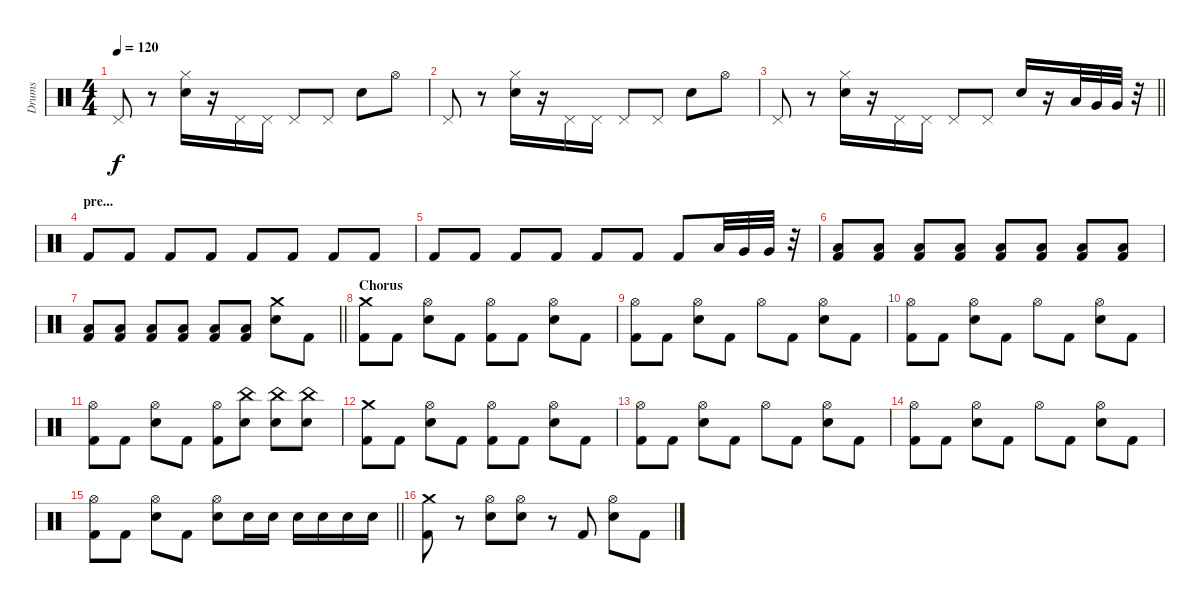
\track ("Drums" "Drums") {instrument percussion}
\staff {score}
\articulation defaults
\ts (4 4)
\tempo 120
\clef neutral
\ks c "Pedal Hi-Hat (hit)".8{dy f}
r.8 ("Hi-Hat (closed)" "Electric Snare (hit)").16 r.16 "Pedal Hi-Hat (hit)".16 "Pedal Hi-Hat (hit)".16 "Pedal Hi-Hat (hit)".8 "Pedal Hi-Hat (hit)".8 "Electric Snare (hit)".8 "Hi-Hat (open)".8 |
"Pedal Hi-Hat (hit)".8 r.8 ("Hi-Hat (closed)" "Electric Snare (hit)").16 r.16 "Pedal Hi-Hat (hit)".16 "Pedal Hi-Hat (hit)".16 "Pedal Hi-Hat (hit)".8 "Pedal Hi-Hat (hit)".8 "Electric Snare (hit)".8 "Hi-Hat (open)".8 |
\barLineRight lightlight "Pedal Hi-Hat (hit)".8
r.8 ("Hi-Hat (closed)" "Electric Snare (hit)").16 r.16 "Pedal Hi-Hat (hit)".16 "Pedal Hi-Hat (hit)".16 "Pedal Hi-Hat (hit)".8 "Pedal Hi-Hat (hit)".8 "Electric Snare (hit)".16 r.16 "Low Tom (hit)".32{balance 0} "Very Low Tom (hit)".32 "Very Low Tom (hit)".32 r.32 |
\section ("" "pre...")
"Kick (hit) 2".8{balance 8} "Kick (hit) 2".8 "Kick (hit) 2".8 "Kick (hit) 2".8 "Kick (hit) 2".8 "Kick (hit) 2".8 "Kick (hit) 2".8 "Kick (hit) 2".8 |
"Kick (hit) 2".8 "Kick (hit) 2".8 "Kick (hit) 2".8 "Kick (hit) 2".8 "Kick (hit) 2".8 "Kick (hit) 2".8 "Kick (hit) 2".8 "Low Tom (hit)".32 "Very Low Tom (hit)".32 "Very Low Tom (hit)".32 r.32 |
("Low Floor Tom (hit)" "Kick (hit) 2").8 ("Low Floor Tom (hit)" "Kick (hit) 2").8 ("Low Floor Tom (hit)" "Kick (hit) 2").8 ("Low Floor Tom (hit)" "Kick (hit) 2").8 ("Low Floor Tom (hit)" "Kick (hit) 2").8 ("Low Floor Tom (hit)" "Kick (hit) 2").8 ("Low Floor Tom (hit)" "Kick (hit) 2").8 ("Low Floor Tom (hit)" "Kick (hit) 2").8 |
\barLineRight lightlight
("Low Floor Tom (hit)" "Kick (hit) 2").8 ("Low Floor Tom (hit)" "Kick (hit) 2").8 ("Low Floor Tom (hit)" "Kick (hit) 2").8 ("Low Floor Tom (hit)" "Kick (hit) 2").8 ("Low Floor Tom (hit)" "Kick (hit) 2").8 ("Low Floor Tom (hit)" "Kick (hit) 2").8 ("Crash medium (hit)" "Electric Snare (hit)").8 "Kick (hit) 2".8 |
\section ("" "Chorus")
("Crash medium (hit)" "Kick (hit) 2").8 "Kick (hit) 2".8 ("Hi-Hat (open)" "Electric Snare (hit)").8 "Kick (hit) 2".8 ("Hi-Hat (open)" "Kick (hit) 2").8 "Kick (hit) 2".8 ("Hi-Hat (open)" "Electric Snare (hit)").8 "Kick (hit) 2".8 |
("Hi-Hat (open)" "Kick (hit) 2").8 "Kick (hit) 2".8 ("Hi-Hat (open)" "Electric Snare (hit)").8 "Kick (hit) 2".8 "Hi-Hat (open)".8 "Kick (hit) 2".8 ("Hi-Hat (open)" "Electric Snare (hit)").8 "Kick (hit) 2".8 |
("Hi-Hat (open)" "Kick (hit) 2").8 "Kick (hit) 2".8 ("Hi-Hat (open)" "Electric Snare (hit)").8 "Kick (hit) 2".8 "Hi-Hat (open)".8 "Kick (hit) 2".8 ("Hi-Hat (open)" "Electric Snare (hit)").8 "Kick (hit) 2".8 |
("Hi-Hat (open)" "Kick (hit) 2").8 "Kick (hit) 2".8 ("Hi-Hat (open)" "Electric Snare (hit)").8 "Kick (hit) 2".8 ("Hi-Hat (open)" "Kick (hit) 2").8 ("China (hit)" "Electric Snare (hit)").8 ("China (hit)" "Electric Snare (hit)").8 ("China (hit)" "Electric Snare (hit)").8 |
("Crash medium (hit)" "Kick (hit) 2").8 "Kick (hit) 2".8 ("Hi-Hat (open)" "Electric Snare (hit)").8 "Kick (hit) 2".8 ("Hi-Hat (open)" "Kick (hit) 2").8 "Kick (hit) 2".8 ("Hi-Hat (open)" "Electric Snare (hit)").8 "Kick (hit) 2".8 |
("Hi-Hat (open)" "Kick (hit) 2").8 "Kick (hit) 2".8 ("Hi-Hat (open)" "Electric Snare (hit)").8 "Kick (hit) 2".8 "Hi-Hat (open)".8 "Kick (hit) 2".8 ("Hi-Hat (open)" "Electric Snare (hit)").8 "Kick (hit) 2".8 |
("Hi-Hat (open)" "Kick (hit) 2").8 "Kick (hit) 2".8 ("Hi-Hat (open)" "Electric Snare (hit)").8 "Kick (hit) 2".8 "Hi-Hat (open)".8 "Kick (hit) 2".8 ("Hi-Hat (open)" "Electric Snare (hit)").8 "Kick (hit) 2".8 |
\barLineRight lightlight
("Hi-Hat (open)" "Kick (hit) 2").8 "Kick (hit) 2".8 ("Hi-Hat (open)" "Electric Snare (hit)").8 "Kick (hit) 2".8 ("Hi-Hat (open)" "Electric Snare (hit)").8 "Electric Snare (hit)".16 "Electric Snare (hit)".16 "Electric Snare (hit)".16 "Electric Snare (hit)".16 "Electric Snare (hit)".16 "Electric Snare (hit)".16 |
\section ("" "")
("Crash medium (hit)" "Kick (hit) 2").8 r.8 ("Hi-Hat (open)" "Electric Snare (hit)").8 ("Hi-Hat (open)" "Electric Snare (hit)").8 r.8 "Kick (hit) 2".8 ("Hi-Hat (open)" "Electric Snare (hit)").8 "Kick (hit) 2".8
